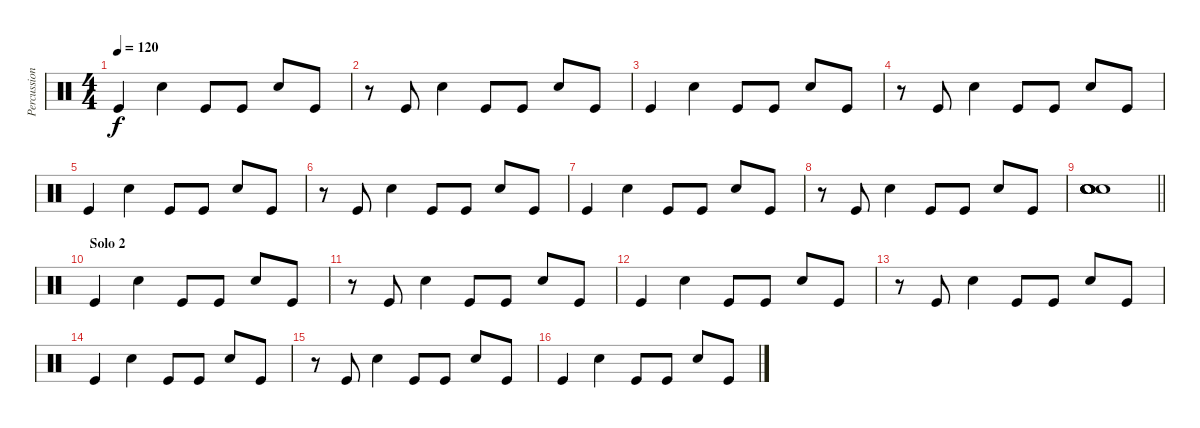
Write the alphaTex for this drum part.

\track ("Percussion" "Percussion") {instrument percussion}
\staff {score}
\articulation defaults
\ts (4 4)
\tempo 120
\clef neutral
\ks c "Kick (hit)".4{dy f} "Snare (hit) 2".4 "Kick (hit)".8 "Kick (hit)".8 "Snare (hit) 2".8 "Kick (hit)".8
|
r.8 "Kick (hit)".8 "Snare (hit) 2".4 "Kick (hit)".8 "Kick (hit)".8 "Snare (hit) 2".8 "Kick (hit)".8 |
"Kick (hit)".4 "Snare (hit) 2".4 "Kick (hit)".8 "Kick (hit)".8 "Snare (hit) 2".8 "Kick (hit)".8 |
r.8 "Kick (hit)".8 "Snare (hit) 2".4 "Kick (hit)".8 "Kick (hit)".8 "Snare (hit) 2".8 "Kick (hit)".8 |
"Kick (hit)".4 "Snare (hit) 2".4 "Kick (hit)".8 "Kick (hit)".8 "Snare (hit) 2".8 "Kick (hit)".8 |
r.8 "Kick (hit)".8 "Snare (hit) 2".4 "Kick (hit)".8 "Kick (hit)".8 "Snare (hit) 2".8 "Kick (hit)".8 |
"Kick (hit)".4 "Snare (hit) 2".4 "Kick (hit)".8 "Kick (hit)".8 "Snare (hit) 2".8 "Kick (hit)".8 |
r.8 "Kick (hit)".8 "Snare (hit) 2".4 "Kick (hit)".8 "Kick (hit)".8 "Snare (hit) 2".8 "Kick (hit)".8 |
\barLineRight lightlight
("Snare (hit) 2" "Snare (hit) 2" "Snare (hit) 2" "Snare (hit) 2" "Snare (hit) 2" "Snare (hit) 2").1 |
\section ("" "Solo 2")
"Kick (hit)".4 "Snare (hit) 2".4 "Kick (hit)".8 "Kick (hit)".8 "Snare (hit) 2".8 "Kick (hit)".8 |
r.8 "Kick (hit)".8 "Snare (hit) 2".4 "Kick (hit)".8 "Kick (hit)".8 "Snare (hit) 2".8 "Kick (hit)".8 |
"Kick (hit)".4 "Snare (hit) 2".4 "Kick (hit)".8 "Kick (hit)".8 "Snare (hit) 2".8 "Kick (hit)".8 |
r.8 "Kick (hit)".8 "Snare (hit) 2".4 "Kick (hit)".8 "Kick (hit)".8 "Snare (hit) 2".8 "Kick (hit)".8 |
"Kick (hit)".4 "Snare (hit) 2".4 "Kick (hit)".8 "Kick (hit)".8 "Snare (hit) 2".8 "Kick (hit)".8 |
r.8 "Kick (hit)".8 "Snare (hit) 2".4 "Kick (hit)".8 "Kick (hit)".8 "Snare (hit) 2".8 "Kick (hit)".8 |
"Kick (hit)".4 "Snare (hit) 2".4 "Kick (hit)".8 "Kick (hit)".8 "Snare (hit) 2".8 "Kick (hit)".8
